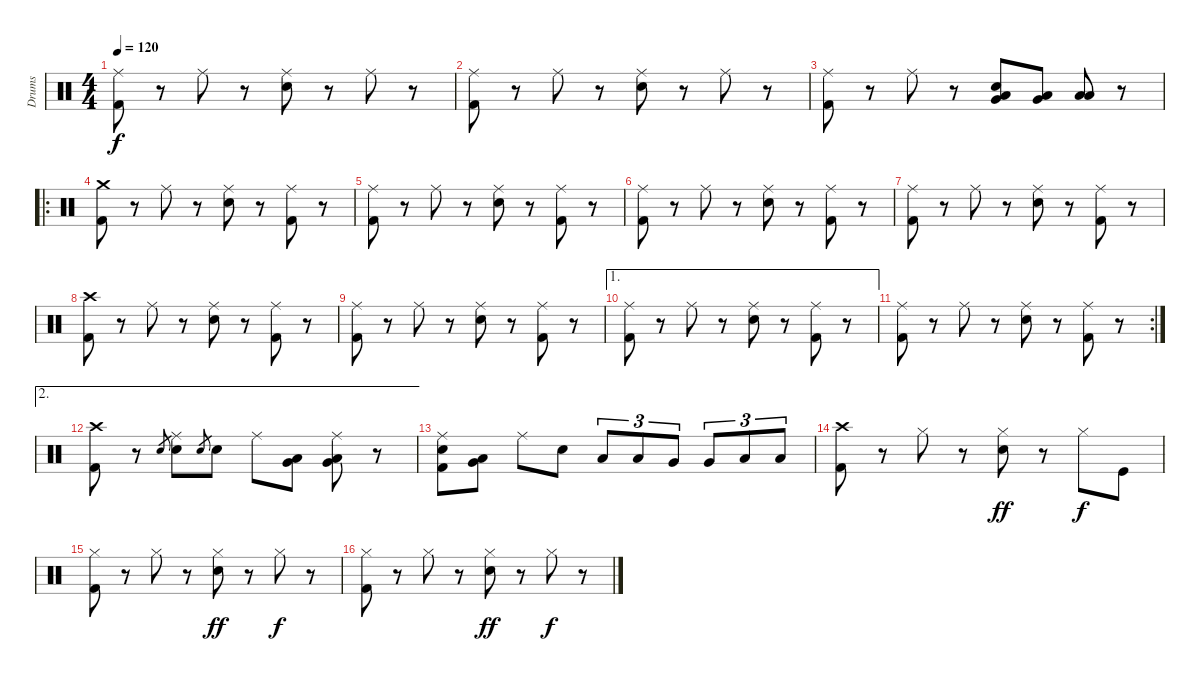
\track ("Drums" "Drums") {instrument percussion}
\staff {score}
\articulation defaults
\ts (4 4)
\tempo 120
\clef neutral
\ks c
("Ride (middle)" "Kick (hit) 2").8{dy f} r.8 "Ride (middle)".8 r.8 ("Ride (middle)" "Electric Snare (hit)").8 r.8 "Ride (middle)".8 r.8 |
("Ride (middle)" "Kick (hit) 2").8 r.8 "Ride (middle)".8 r.8 ("Ride (middle)" "Electric Snare (hit)").8 r.8 "Ride (middle)".8 r.8 |
("Ride (middle)" "Kick (hit) 2").8 r.8 "Ride (middle)".8 r.8 ("Low Tom (hit)" "Very Low Tom (hit)" "Electric Snare (hit)").8 ("Very Low Tom (hit)" "Low Floor Tom (hit)").8 ("Low Floor Tom (hit)" "Low Floor Tom (hit)").8 r.8 |
\ro
("Crash medium (hit)" "Kick (hit) 2").8 r.8 "Ride (middle)".8 r.8 ("Ride (middle)" "Electric Snare (hit)").8 r.8 ("Ride (middle)" "Kick (hit) 2").8 r.8 |
("Ride (middle)" "Kick (hit) 2").8 r.8 "Ride (middle)".8 r.8 ("Ride (middle)" "Electric Snare (hit)").8 r.8 ("Ride (middle)" "Kick (hit) 2").8 r.8 |
("Ride (middle)" "Kick (hit) 2").8 r.8 "Ride (middle)".8 r.8 ("Ride (middle)" "Electric Snare (hit)").8 r.8 ("Ride (middle)" "Kick (hit) 2").8 r.8 |
("Ride (middle)" "Kick (hit) 2").8 r.8 "Ride (middle)".8 r.8 ("Ride (middle)" "Electric Snare (hit)").8 r.8 ("Ride (middle)" "Kick (hit) 2").8 r.8 |
("Crash high (hit)" "Kick (hit) 2").8 r.8 "Ride (middle)".8 r.8 ("Ride (middle)" "Electric Snare (hit)").8 r.8 ("Ride (middle)" "Kick (hit) 2").8 r.8 |
("Ride (middle)" "Kick (hit) 2").8 r.8 "Ride (middle)".8 r.8 ("Ride (middle)" "Electric Snare (hit)").8 r.8 ("Ride (middle)" "Kick (hit) 2").8 r.8 |
\ae 1
("Ride (middle)" "Kick (hit) 2").8 r.8 "Ride (middle)".8 r.8 ("Ride (middle)" "Electric Snare (hit)").8 r.8 ("Ride (middle)" "Kick (hit) 2").8 r.8 |
\rc 2
("Ride (middle)" "Kick (hit) 2").8 r.8 "Ride (middle)".8 r.8 ("Ride (middle)" "Electric Snare (hit)").8 r.8 ("Ride (middle)" "Kick (hit) 2").8 r.8 |
\ae 2
("Crash high (hit)" "Kick (hit) 2").8 r.8 "Electric Snare (hit)".8{gr} ("Ride (middle)" "Electric Snare (hit)").8 "Electric Snare (hit)".8{gr} "Electric Snare (hit)".8 "Ride (middle)".8 ("Low Tom (hit)" "Very Low Tom (hit)").8 ("Ride (middle)" "Low Tom (hit)" "Very Low Tom (hit)").8 r.8 |
("Ride (middle)" "Electric Snare (hit)" "Kick (hit) 2").8 ("Low Tom (hit)" "Very Low Tom (hit)").8 "Ride (middle)".8 "Electric Snare (hit)".8 "Low Tom (hit)".8{tu (3 2)} "Low Tom (hit)".8{tu (3 2)} "Very Low Tom (hit)".8{tu (3 2)} "Very Low Tom (hit)".8{tu (3 2)} "Low Floor Tom (hit)".8{tu (3 2)} "Low Floor Tom (hit)".8{tu (3 2)} |
("Crash high (hit)" "Kick (hit) 2").8 r.8 "Hi-Hat (closed)".8 r.8 ("Hi-Hat (closed)" "Electric Snare (hit)").8{dy ff} r.8 "Hi-Hat (closed)".8{dy f} "Kick (hit)".8 |
("Hi-Hat (closed)" "Kick (hit) 2").8 r.8 "Hi-Hat (closed)".8 r.8 ("Hi-Hat (closed)" "Electric Snare (hit)").8{dy ff} r.8 "Hi-Hat (closed)".8{dy f} r.8 |
("Hi-Hat (closed)" "Kick (hit) 2").8 r.8 "Hi-Hat (closed)".8 r.8 ("Hi-Hat (closed)" "Electric Snare (hit)").8{dy ff} r.8 "Hi-Hat (closed)".8{dy f} r.8
